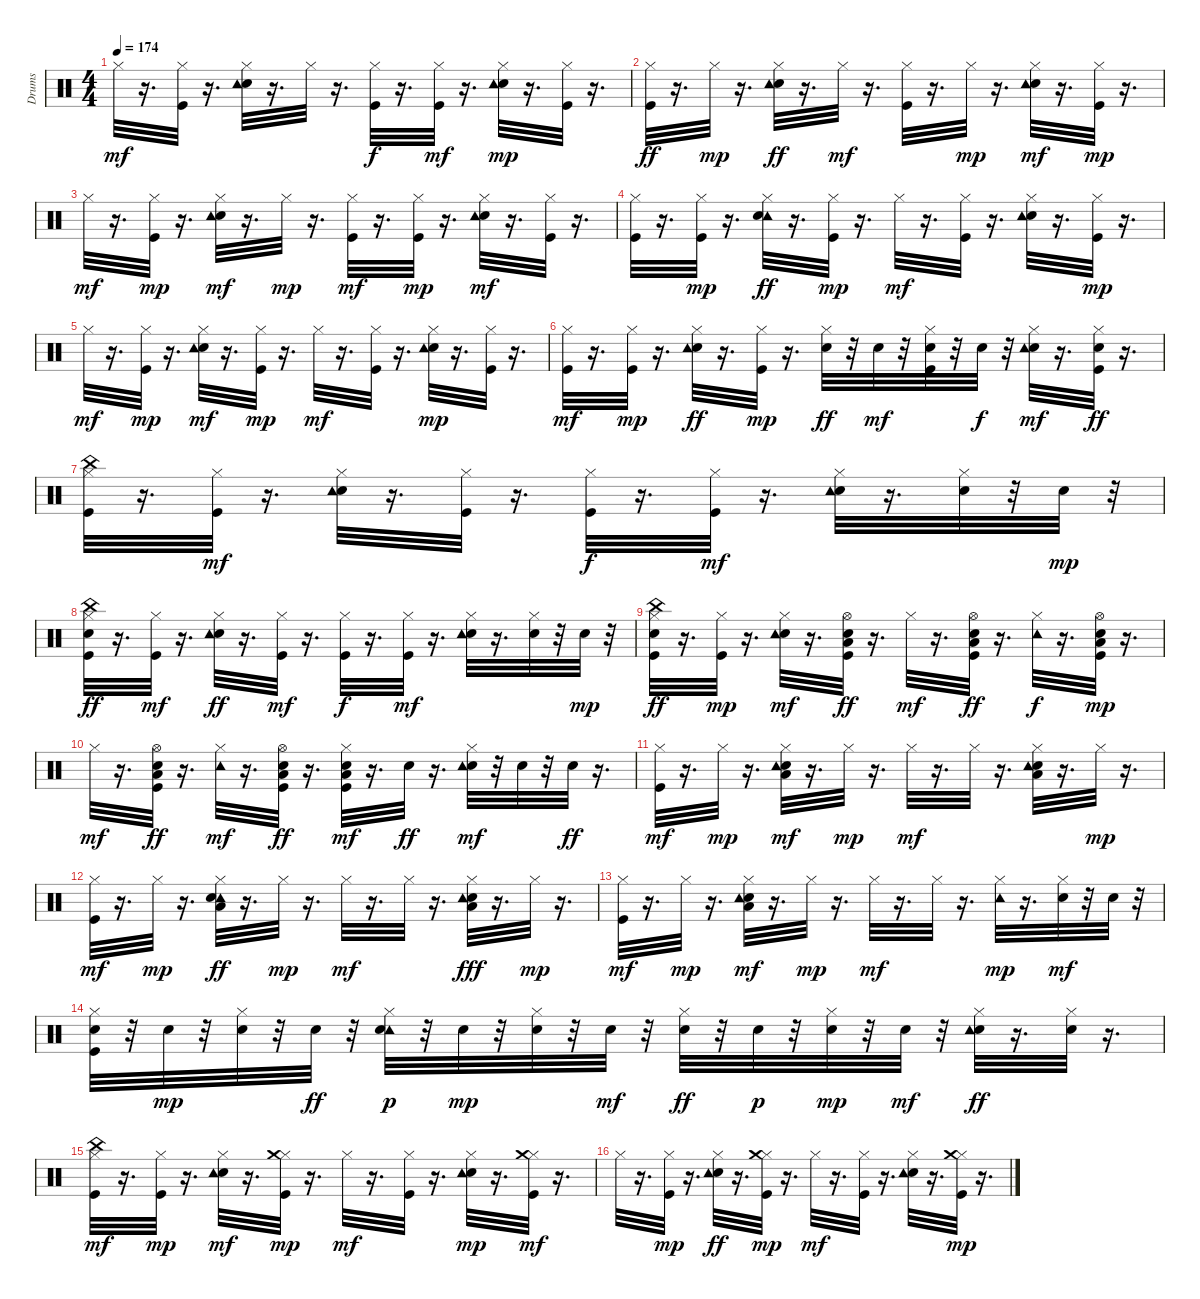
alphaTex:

\track ("Drums" "Drums") {instrument percussion}
\staff {score}
\articulation defaults
\ts (4 4)
\tempo 174
\clef neutral
\ks c "Hi-Hat (closed)".32{dy mf}
r.16{d} ("Kick (hit)" "Hi-Hat (closed)").32 r.16{d} ("Hi-Hat (closed)" "Electric Snare (hit)" "Tambourine (hit)").32 r.16{d} "Hi-Hat (closed)".32 r.16{d} ("Kick (hit)" "Hi-Hat (closed)").32{dy f} r.16{d} ("Kick (hit)" "Hi-Hat (closed)").32{dy mf} r.16{d} ("Hi-Hat (closed)" "Electric Snare (hit)" "Tambourine (hit)").32{dy mp} r.16{d} ("Kick (hit)" "Hi-Hat (closed)").32 r.16{d} |
("Kick (hit)" "Hi-Hat (closed)").32{dy ff} r.16{d} "Hi-Hat (closed)".32{dy mp} r.16{d} ("Hi-Hat (closed)" "Electric Snare (hit)" "Tambourine (hit)").32{dy ff} r.16{d} "Hi-Hat (closed)".32{dy mf} r.16{d} ("Kick (hit)" "Hi-Hat (closed)").32 r.16{d} "Hi-Hat (closed)".32{dy mp} r.16{d} ("Hi-Hat (closed)" "Electric Snare (hit)" "Tambourine (hit)").32{dy mf} r.16{d} ("Kick (hit)" "Hi-Hat (closed)").32{dy mp} r.16{d} |
"Hi-Hat (closed)".32{dy mf} r.16{d} ("Kick (hit)" "Hi-Hat (closed)").32{dy mp} r.16{d} ("Hi-Hat (closed)" "Electric Snare (hit)" "Tambourine (hit)").32{dy mf} r.16{d} "Hi-Hat (closed)".32{dy mp} r.16{d} ("Kick (hit)" "Hi-Hat (closed)").32{dy mf} r.16{d} ("Kick (hit)" "Hi-Hat (closed)").32{dy mp} r.16{d} ("Hi-Hat (closed)" "Electric Snare (hit)" "Tambourine (hit)").32{dy mf} r.16{d} ("Kick (hit)" "Hi-Hat (closed)").32 r.16{d} |
("Kick (hit)" "Hi-Hat (closed)").32 r.16{d} ("Kick (hit)" "Hi-Hat (closed)").32{dy mp} r.16{d} ("Tambourine (hit)" "Hi-Hat (closed)" "Electric Snare (hit)").32{dy ff} r.16{d} ("Kick (hit)" "Hi-Hat (closed)").32{dy mp} r.16{d} "Hi-Hat (closed)".32{dy mf} r.16{d} ("Kick (hit)" "Hi-Hat (closed)").32 r.16{d} ("Hi-Hat (closed)" "Electric Snare (hit)" "Tambourine (hit)").32 r.16{d} ("Kick (hit)" "Hi-Hat (closed)").32{dy mp} r.16{d} |
"Hi-Hat (closed)".32{dy mf} r.16{d} ("Kick (hit)" "Hi-Hat (closed)").32{dy mp} r.16{d} ("Hi-Hat (closed)" "Electric Snare (hit)" "Tambourine (hit)").32{dy mf} r.16{d} ("Kick (hit)" "Hi-Hat (closed)").32{dy mp} r.16{d} "Hi-Hat (closed)".32{dy mf} r.16{d} ("Kick (hit)" "Hi-Hat (closed)").32 r.16{d} ("Hi-Hat (closed)" "Electric Snare (hit)" "Tambourine (hit)").32{dy mp} r.16{d} ("Kick (hit)" "Hi-Hat (closed)").32 r.16{d} |
("Kick (hit)" "Hi-Hat (closed)").32{dy mf} r.16{d} ("Kick (hit)" "Hi-Hat (closed)").32{dy mp} r.16{d} ("Hi-Hat (closed)" "Electric Snare (hit)" "Tambourine (hit)").32{dy ff} r.16{d} ("Kick (hit)" "Hi-Hat (closed)").32{dy mp} r.16{d} ("Hi-Hat (closed)" "Electric Snare (hit)").32{dy ff} r.32 "Electric Snare (hit)".32{dy mf} r.32 ("Kick (hit)" "Hi-Hat (closed)" "Electric Snare (hit)").32 r.32 "Electric Snare (hit)".32{dy f} r.32 ("Hi-Hat (closed)" "Electric Snare (hit)" "Tambourine (hit)").32{dy mf} r.16{d} ("Kick (hit)" "Hi-Hat (closed)" "Electric Snare (hit)").32{dy ff} r.16{d} |
("Kick (hit)" "Hi-Hat (closed)" "China (hit)").32 r.16{d} ("Kick (hit)" "Hi-Hat (closed)").32{dy mf} r.16{d} ("Hi-Hat (closed)" "Electric Snare (hit)" "Tambourine (hit)").32 r.16{d} ("Kick (hit)" "Hi-Hat (closed)").32 r.16{d} ("Kick (hit)" "Hi-Hat (closed)").32{dy f} r.16{d} ("Kick (hit)" "Hi-Hat (closed)").32{dy mf} r.16{d} ("Hi-Hat (closed)" "Electric Snare (hit)" "Tambourine (hit)").32 r.16{d} ("Hi-Hat (closed)" "Electric Snare (hit)").32 r.32 "Electric Snare (hit)".32{dy mp} r.32 |
("Kick (hit)" "Hi-Hat (closed)" "Electric Snare (hit)" "China (hit)").32{dy ff} r.16{d} ("Kick (hit)" "Hi-Hat (closed)").32{dy mf} r.16{d} ("Hi-Hat (closed)" "Electric Snare (hit)" "Tambourine (hit)").32{dy ff} r.16{d} ("Kick (hit)" "Hi-Hat (closed)").32{dy mf} r.16{d} ("Kick (hit)" "Hi-Hat (closed)").32{dy f} r.16{d} ("Kick (hit)" "Hi-Hat (closed)").32{dy mf} r.16{d} ("Hi-Hat (closed)" "Electric Snare (hit)" "Tambourine (hit)").32 r.16{d} ("Hi-Hat (closed)" "Electric Snare (hit)").32 r.32 "Electric Snare (hit)".32{dy mp} r.32 |
("Kick (hit)" "Hi-Hat (closed)" "Electric Snare (hit)" "China (hit)").32{dy ff} r.16{d} ("Kick (hit)" "Hi-Hat (closed)").32{dy mp} r.16{d} ("Hi-Hat (closed)" "Electric Snare (hit)" "Tambourine (hit)").32{dy mf} r.16{d} ("Low Tom (hit)" "Kick (hit)" "Hi-Hat (open)" "Electric Snare (hit)").32{dy ff} r.16{d} "Hi-Hat (closed)".32{dy mf} r.16{d} ("Low Tom (hit)" "Kick (hit)" "Hi-Hat (open)" "Electric Snare (hit)").32{dy ff} r.16{d} ("Hi-Hat (closed)" "Tambourine (hit)").32{dy f} r.16{d} ("Low Tom (hit)" "Kick (hit)" "Hi-Hat (open)" "Electric Snare (hit)").32{dy mp} r.16{d} |
"Hi-Hat (closed)".32{dy mf} r.16{d} ("Low Tom (hit)" "Kick (hit)" "Hi-Hat (open)" "Electric Snare (hit)").32{dy ff} r.16{d} ("Tambourine (hit)" "Hi-Hat (closed)").32{dy mf} r.16{d} ("Low Tom (hit)" "Kick (hit)" "Hi-Hat (open)" "Electric Snare (hit)").32{dy ff} r.16{d} ("Low Tom (hit)" "Kick (hit)" "Hi-Hat (closed)" "Electric Snare (hit)").32{dy mf} r.16{d} "Electric Snare (hit)".32{dy ff} r.16{d} ("Hi-Hat (closed)" "Electric Snare (hit)" "Tambourine (hit)").32{dy mf} r.32 "Electric Snare (hit)".32 r.32 "Electric Snare (hit)".32{dy ff} r.16{d} |
("Kick (hit)" "Hi-Hat (closed)").32{dy mf} r.16{d} "Hi-Hat (closed)".32{dy mp} r.16{d} ("Low Tom (hit)" "Hi-Hat (closed)" "Electric Snare (hit)" "Tambourine (hit)").32{dy mf} r.16{d} "Hi-Hat (closed)".32{dy mp} r.16{d} "Hi-Hat (closed)".32{dy mf} r.16{d} "Hi-Hat (closed)".32 r.16{d} ("Low Tom (hit)" "Hi-Hat (closed)" "Electric Snare (hit)" "Tambourine (hit)").32 r.16{d} "Hi-Hat (closed)".32{dy mp} r.16{d} |
("Kick (hit)" "Hi-Hat (closed)").32{dy mf} r.16{d} "Hi-Hat (closed)".32{dy mp} r.16{d} ("Tambourine (hit)" "Low Tom (hit)" "Hi-Hat (closed)" "Electric Snare (hit)").32{dy ff} r.16{d} "Hi-Hat (closed)".32{dy mp} r.16{d} "Hi-Hat (closed)".32{dy mf} r.16{d} "Hi-Hat (closed)".32 r.16{d} ("Low Tom (hit)" "Hi-Hat (closed)" "Electric Snare (hit)" "Tambourine (hit)").32{dy fff} r.16{d} "Hi-Hat (closed)".32{dy mp} r.16{d} |
("Kick (hit)" "Hi-Hat (closed)").32{dy mf} r.16{d} "Hi-Hat (closed)".32{dy mp} r.16{d} ("Low Tom (hit)" "Hi-Hat (closed)" "Electric Snare (hit)" "Tambourine (hit)").32{dy mf} r.16{d} "Hi-Hat (closed)".32{dy mp} r.16{d} "Hi-Hat (closed)".32{dy mf} r.16{d} "Hi-Hat (closed)".32 r.16{d} ("Hi-Hat (closed)" "Tambourine (hit)").32{dy mp} r.16{d} ("Hi-Hat (closed)" "Electric Snare (hit)").32{dy mf} r.32 "Electric Snare (hit)".32 r.32 |
("Kick (hit)" "Hi-Hat (closed)" "Electric Snare (hit)").32 r.32 "Electric Snare (hit)".32{dy mp} r.32 ("Hi-Hat (closed)" "Electric Snare (hit)").32 r.32 "Electric Snare (hit)".32{dy ff} r.32 ("Tambourine (hit)" "Hi-Hat (closed)" "Electric Snare (hit)").32{dy p} r.32 "Electric Snare (hit)".32{dy mp} r.32 ("Hi-Hat (closed)" "Electric Snare (hit)").32 r.32 "Electric Snare (hit)".32{dy mf} r.32 ("Hi-Hat (closed)" "Electric Snare (hit)").32{dy ff} r.32 "Electric Snare (hit)".32{dy p} r.32 ("Hi-Hat (closed)" "Electric Snare (hit)").32{dy mp} r.32 "Electric Snare (hit)".32{dy mf} r.32 ("Hi-Hat (closed)" "Electric Snare (hit)" "Tambourine (hit)").32{dy ff} r.16{d} ("Hi-Hat (closed)" "Electric Snare (hit)").32 r.16{d} |
("Kick (hit)" "Hi-Hat (closed)" "China (hit)").32{dy mf} r.16{d} ("Kick (hit)" "Hi-Hat (closed)").32{dy mp} r.16{d} ("Hi-Hat (closed)" "Electric Snare (hit)" "Tambourine (hit)").32{dy mf} r.16{d} ("Kick (hit)" "Hi-Hat (closed)" "Crash medium (hit)").32{dy mp} r.16{d} "Hi-Hat (closed)".32{dy mf} r.16{d} ("Kick (hit)" "Hi-Hat (closed)").32 r.16{d} ("Hi-Hat (closed)" "Electric Snare (hit)" "Tambourine (hit)").32{dy mp} r.16{d} ("Kick (hit)" "Hi-Hat (closed)" "Crash medium (hit)").32{dy mf} r.16{d} |
"Hi-Hat (closed)".32 r.16{d} ("Kick (hit)" "Hi-Hat (closed)").32{dy mp} r.16{d} ("Hi-Hat (closed)" "Electric Snare (hit)" "Tambourine (hit)").32{dy ff} r.16{d} ("Kick (hit)" "Hi-Hat (closed)" "Crash medium (hit)").32{dy mp} r.16{d} "Hi-Hat (closed)".32{dy mf} r.16{d} ("Kick (hit)" "Hi-Hat (closed)").32 r.16{d} ("Hi-Hat (closed)" "Electric Snare (hit)" "Tambourine (hit)").32 r.16{d} ("Kick (hit)" "Hi-Hat (closed)" "Crash medium (hit)").32{dy mp} r.16{d}
